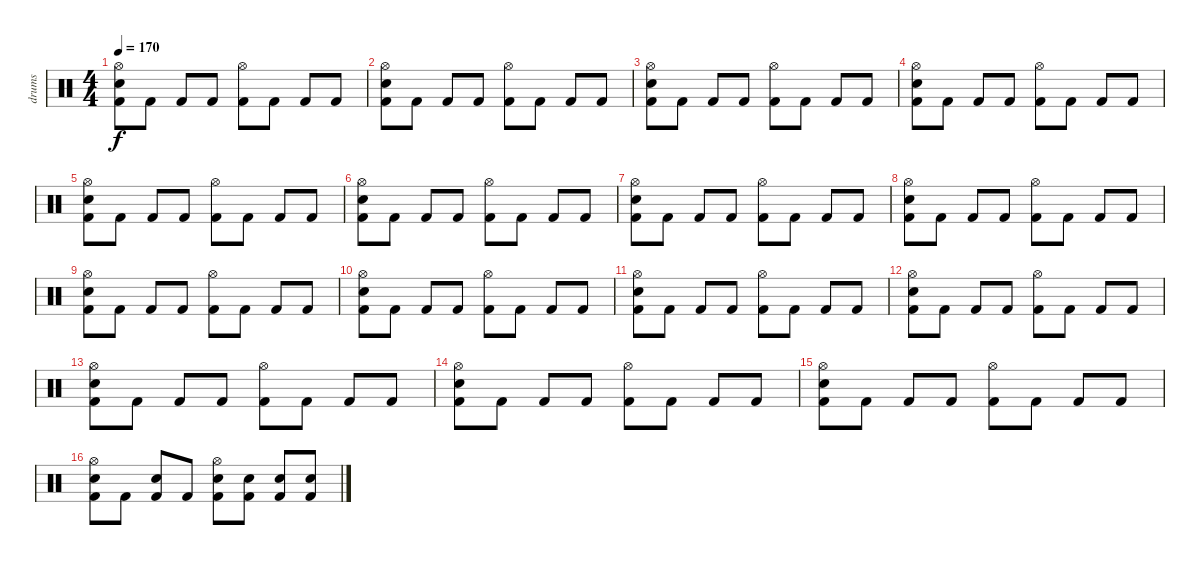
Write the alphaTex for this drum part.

\track ("drums" "drums") {instrument percussion}
\staff {score}
\articulation defaults
\ts (4 4)
\tempo 170
\clef neutral
\ks c
("Hi-Hat (open)" "Electric Snare (hit)" "Kick (hit) 2").8{dy f} "Kick (hit) 2".8 "Kick (hit) 2".8 "Kick (hit) 2".8 ("Hi-Hat (open)" "Kick (hit) 2").8 "Kick (hit) 2".8 "Kick (hit) 2".8 "Kick (hit) 2".8 |
("Hi-Hat (open)" "Electric Snare (hit)" "Kick (hit) 2").8 "Kick (hit) 2".8 "Kick (hit) 2".8 "Kick (hit) 2".8 ("Hi-Hat (open)" "Kick (hit) 2").8 "Kick (hit) 2".8 "Kick (hit) 2".8 "Kick (hit) 2".8 |
("Hi-Hat (open)" "Electric Snare (hit)" "Kick (hit) 2").8 "Kick (hit) 2".8 "Kick (hit) 2".8 "Kick (hit) 2".8 ("Hi-Hat (open)" "Kick (hit) 2").8 "Kick (hit) 2".8 "Kick (hit) 2".8 "Kick (hit) 2".8 |
("Hi-Hat (open)" "Electric Snare (hit)" "Kick (hit) 2").8 "Kick (hit) 2".8 "Kick (hit) 2".8 "Kick (hit) 2".8 ("Hi-Hat (open)" "Kick (hit) 2").8 "Kick (hit) 2".8 "Kick (hit) 2".8 "Kick (hit) 2".8 |
("Hi-Hat (open)" "Electric Snare (hit)" "Kick (hit) 2").8 "Kick (hit) 2".8 "Kick (hit) 2".8 "Kick (hit) 2".8 ("Hi-Hat (open)" "Kick (hit) 2").8 "Kick (hit) 2".8 "Kick (hit) 2".8 "Kick (hit) 2".8 |
("Hi-Hat (open)" "Electric Snare (hit)" "Kick (hit) 2").8 "Kick (hit) 2".8 "Kick (hit) 2".8 "Kick (hit) 2".8 ("Hi-Hat (open)" "Kick (hit) 2").8 "Kick (hit) 2".8 "Kick (hit) 2".8 "Kick (hit) 2".8 |
("Hi-Hat (open)" "Electric Snare (hit)" "Kick (hit) 2").8 "Kick (hit) 2".8 "Kick (hit) 2".8 "Kick (hit) 2".8 ("Hi-Hat (open)" "Kick (hit) 2").8 "Kick (hit) 2".8 "Kick (hit) 2".8 "Kick (hit) 2".8 |
("Hi-Hat (open)" "Electric Snare (hit)" "Kick (hit) 2").8 "Kick (hit) 2".8 "Kick (hit) 2".8 "Kick (hit) 2".8 ("Hi-Hat (open)" "Kick (hit) 2").8 "Kick (hit) 2".8 "Kick (hit) 2".8 "Kick (hit) 2".8 |
("Hi-Hat (open)" "Electric Snare (hit)" "Kick (hit) 2").8 "Kick (hit) 2".8 "Kick (hit) 2".8 "Kick (hit) 2".8 ("Hi-Hat (open)" "Kick (hit) 2").8 "Kick (hit) 2".8 "Kick (hit) 2".8 "Kick (hit) 2".8 |
("Hi-Hat (open)" "Electric Snare (hit)" "Kick (hit) 2").8 "Kick (hit) 2".8 "Kick (hit) 2".8 "Kick (hit) 2".8 ("Hi-Hat (open)" "Kick (hit) 2").8 "Kick (hit) 2".8 "Kick (hit) 2".8 "Kick (hit) 2".8 |
("Hi-Hat (open)" "Electric Snare (hit)" "Kick (hit) 2").8 "Kick (hit) 2".8 "Kick (hit) 2".8 "Kick (hit) 2".8 ("Hi-Hat (open)" "Kick (hit) 2").8 "Kick (hit) 2".8 "Kick (hit) 2".8 "Kick (hit) 2".8 |
("Hi-Hat (open)" "Electric Snare (hit)" "Kick (hit) 2").8 "Kick (hit) 2".8 "Kick (hit) 2".8 "Kick (hit) 2".8 ("Hi-Hat (open)" "Kick (hit) 2").8 "Kick (hit) 2".8 "Kick (hit) 2".8 "Kick (hit) 2".8 |
("Hi-Hat (open)" "Electric Snare (hit)" "Kick (hit) 2").8 "Kick (hit) 2".8 "Kick (hit) 2".8 "Kick (hit) 2".8 ("Hi-Hat (open)" "Kick (hit) 2").8 "Kick (hit) 2".8 "Kick (hit) 2".8 "Kick (hit) 2".8 |
("Hi-Hat (open)" "Electric Snare (hit)" "Kick (hit) 2").8 "Kick (hit) 2".8 "Kick (hit) 2".8 "Kick (hit) 2".8 ("Hi-Hat (open)" "Kick (hit) 2").8 "Kick (hit) 2".8 "Kick (hit) 2".8 "Kick (hit) 2".8 |
("Hi-Hat (open)" "Electric Snare (hit)" "Kick (hit) 2").8 "Kick (hit) 2".8 "Kick (hit) 2".8 "Kick (hit) 2".8 ("Hi-Hat (open)" "Kick (hit) 2").8 "Kick (hit) 2".8 "Kick (hit) 2".8 "Kick (hit) 2".8 |
("Hi-Hat (open)" "Electric Snare (hit)" "Kick (hit) 2").8 "Kick (hit) 2".8 ("Electric Snare (hit)" "Kick (hit) 2").8 "Kick (hit) 2".8 ("Hi-Hat (open)" "Electric Snare (hit)" "Kick (hit) 2").8 ("Electric Snare (hit)" "Kick (hit) 2").8 ("Electric Snare (hit)" "Kick (hit) 2").8 ("Electric Snare (hit)" "Kick (hit) 2").8
